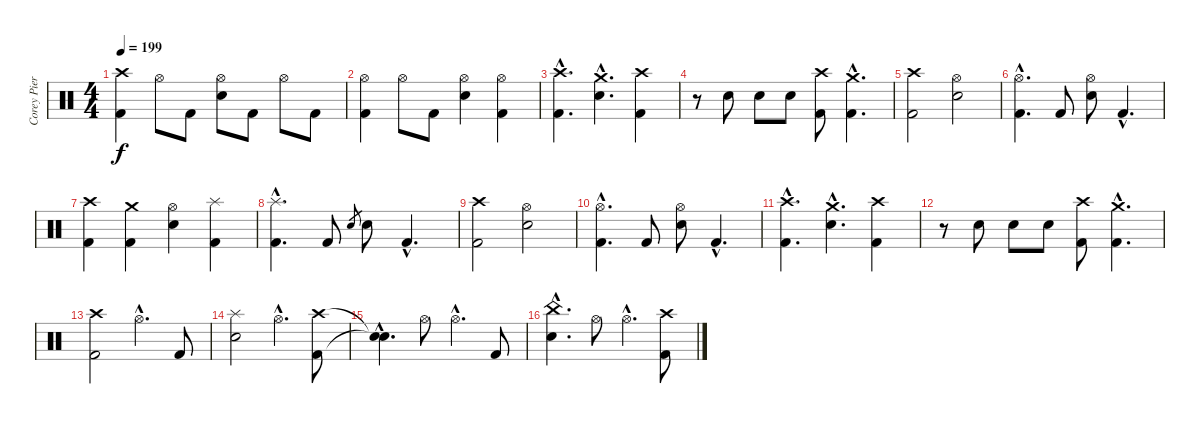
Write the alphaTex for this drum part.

\track ("Corey Pierce (Drums)" "Corey Pier") {instrument percussion}
\staff {score}
\articulation defaults
\ts (4 4)
\tempo 199
\clef neutral
\ks c
("Crash high (hit)" "Kick (hit) 2").4{dy f} "Hi-Hat (open)".8 "Kick (hit) 2".8 ("Hi-Hat (open)" "Snare (hit) 2").8 "Kick (hit) 2".8 "Hi-Hat (open)".8 "Kick (hit) 2".8 |
("Hi-Hat (open)" "Kick (hit) 2").4 "Hi-Hat (open)".8 "Kick (hit) 2".8 ("Hi-Hat (open)" "Snare (hit) 2").4 ("Hi-Hat (open)" "Kick (hit) 2").4 |
("Crash high (hit)"{hac} "Kick (hit) 2"{hac}).4{d} ("Crash medium (hit)"{hac} "Snare (hit) 2"{hac}).4{d} ("Crash high (hit)" "Kick (hit) 2").4 |
r.8 "Snare (hit) 2".8 "Snare (hit) 2".8 "Snare (hit) 2".8 ("Crash high (hit)" "Kick (hit) 2").8 ("Crash medium (hit)"{hac} "Kick (hit) 2"{hac}).4{d} |
("Crash high (hit)" "Kick (hit) 2").2 ("Hi-Hat (open)" "Snare (hit) 2").2 |
("Hi-Hat (open)"{hac} "Kick (hit) 2"{hac}).4{d} "Kick (hit) 2".8 ("Hi-Hat (open)" "Snare (hit) 2").8 "Kick (hit) 2"{hac}.4{d} |
("Crash high (hit)" "Kick (hit) 2").4 ("Crash medium (hit)" "Kick (hit) 2").4 ("Hi-Hat (open)" "Snare (hit) 2").4 ("Splash (hit)" "Kick (hit) 2").4 |
("Splash (hit)"{hac} "Kick (hit) 2"{hac}).4{d} "Kick (hit) 2".8 "Snare (hit) 2".8{gr} "Snare (hit) 2".8 "Kick (hit) 2"{hac}.4{d} |
("Crash high (hit)" "Kick (hit) 2").2 ("Hi-Hat (open)" "Snare (hit) 2").2 |
("Hi-Hat (open)"{hac} "Kick (hit) 2"{hac}).4{d} "Kick (hit) 2".8 ("Hi-Hat (open)" "Snare (hit) 2").8 "Kick (hit) 2"{hac}.4{d} |
("Crash high (hit)"{hac} "Kick (hit) 2"{hac}).4{d} ("Crash medium (hit)"{hac} "Snare (hit) 2"{hac}).4{d} ("Crash high (hit)" "Kick (hit) 2").4 |
r.8 "Snare (hit) 2".8 "Snare (hit) 2".8 "Snare (hit) 2".8 ("Crash high (hit)" "Kick (hit) 2").8 ("Crash medium (hit)"{hac} "Kick (hit) 2"{hac}).4{d} |
("Crash high (hit)" "Kick (hit) 2").2 "Hi-Hat (open)"{hac}.4{d} "Kick (hit) 2".8 |
("Splash (hit)" "Snare (hit) 2").2 "Hi-Hat (open)"{hac}.4{d} ("Crash high (hit)" "Kick (hit) 2").8 |
("Snare (hit)"{hac t} "Snare (hit)"{hac t}).4{d} "Hi-Hat (open)".8 "Hi-Hat (open)"{hac}.4{d} "Kick (hit) 2".8 |
("China (hit)"{hac} "Snare (hit) 2"{hac}).4{d} "Hi-Hat (open)".8 "Hi-Hat (open)"{hac}.4{d} ("Crash high (hit)" "Kick (hit) 2").8
